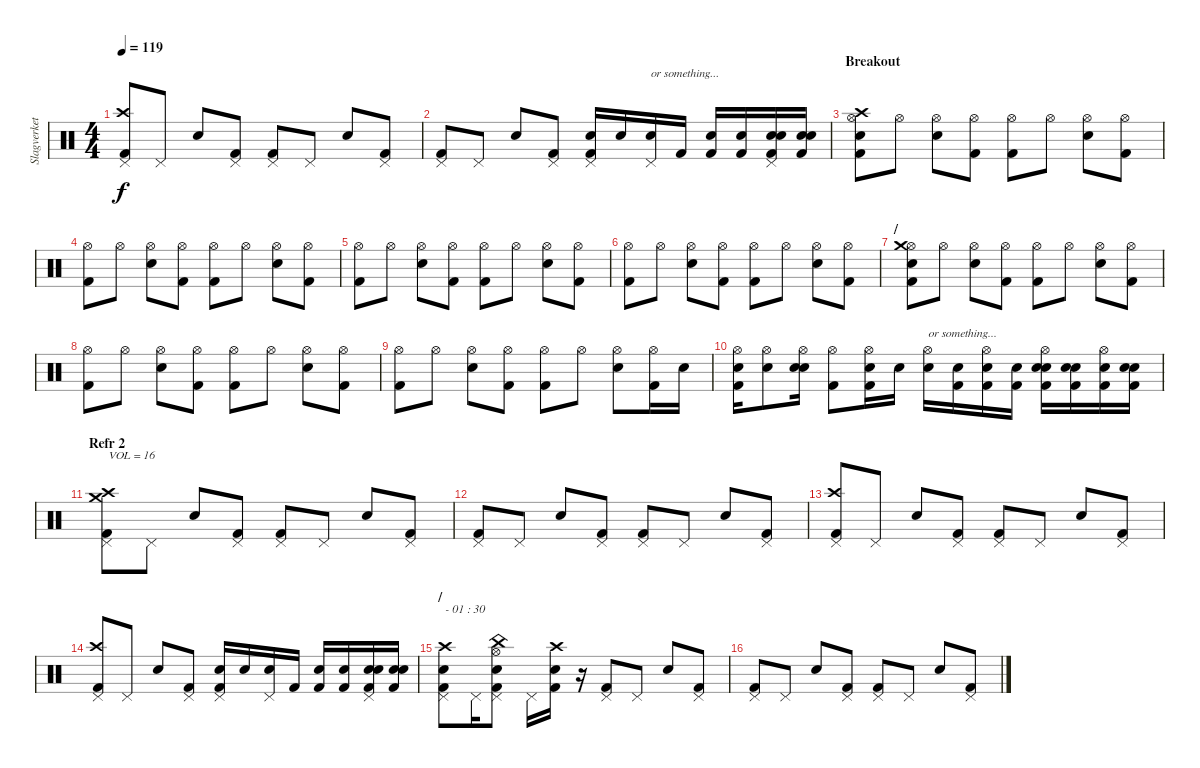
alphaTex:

\track ("Slagverket!" "Slagverket") {instrument percussion}
\staff {score}
\articulation defaults
\ts (4 4)
\tempo 119
\clef neutral
\ks c
("Pedal Hi-Hat (hit)" "Crash high (hit)" "Kick (hit) 2").8{dy f} "Pedal Hi-Hat (hit)".8 "Snare (hit) 2".8 ("Pedal Hi-Hat (hit)" "Kick (hit) 2").8 ("Pedal Hi-Hat (hit)" "Kick (hit) 2").8 "Pedal Hi-Hat (hit)".8 "Snare (hit) 2".8 ("Pedal Hi-Hat (hit)" "Kick (hit) 2").8 |
("Pedal Hi-Hat (hit)" "Kick (hit) 2").8 "Pedal Hi-Hat (hit)".8 "Snare (hit) 2".8 ("Pedal Hi-Hat (hit)" "Kick (hit) 2").8 ("Pedal Hi-Hat (hit)" "Electric Snare (hit)" "Kick (hit) 2").16 "Electric Snare (hit)".16 ("Pedal Hi-Hat (hit)" "Electric Snare (hit)").16{txt "or something..."} "Kick (hit) 2".16 ("Snare (hit) 2" "Kick (hit) 2").16 ("Electric Snare (hit)" "Kick (hit) 2").16 ("Pedal Hi-Hat (hit)" "Snare (hit) 2" "Electric Snare (hit)" "Kick (hit) 2").16 ("Electric Snare (hit)" "Electric Snare (hit)" "Kick (hit) 2").16 |
\section ("" "Breakout")
("Hi-Hat (open)" "Crash high (hit)" "Snare (hit) 2" "Kick (hit) 2").8 "Hi-Hat (open)".8 ("Hi-Hat (open)" "Electric Snare (hit)").8 ("Hi-Hat (open)" "Kick (hit) 2").8 ("Hi-Hat (open)" "Kick (hit) 2").8 "Hi-Hat (open)".8 ("Hi-Hat (open)" "Electric Snare (hit)").8 ("Hi-Hat (open)" "Kick (hit) 2").8 |
("Hi-Hat (open)" "Kick (hit) 2").8 "Hi-Hat (open)".8 ("Hi-Hat (open)" "Electric Snare (hit)").8 ("Hi-Hat (open)" "Kick (hit) 2").8 ("Hi-Hat (open)" "Kick (hit) 2").8 "Hi-Hat (open)".8 ("Hi-Hat (open)" "Electric Snare (hit)").8 ("Hi-Hat (open)" "Kick (hit) 2").8 |
("Hi-Hat (open)" "Kick (hit) 2").8 "Hi-Hat (open)".8 ("Hi-Hat (open)" "Electric Snare (hit)").8 ("Hi-Hat (open)" "Kick (hit) 2").8 ("Hi-Hat (open)" "Kick (hit) 2").8 "Hi-Hat (open)".8 ("Hi-Hat (open)" "Electric Snare (hit)").8 ("Hi-Hat (open)" "Kick (hit) 2").8 |
("Hi-Hat (open)" "Kick (hit) 2").8 "Hi-Hat (open)".8 ("Hi-Hat (open)" "Electric Snare (hit)").8 ("Hi-Hat (open)" "Kick (hit) 2").8 ("Hi-Hat (open)" "Kick (hit) 2").8 "Hi-Hat (open)".8 ("Hi-Hat (open)" "Electric Snare (hit)").8 ("Hi-Hat (open)" "Kick (hit) 2").8 |
\section ("" "/")
("Hi-Hat (open)" "Crash medium (hit)" "Snare (hit) 2" "Kick (hit) 2").8 "Hi-Hat (open)".8 ("Hi-Hat (open)" "Electric Snare (hit)").8 ("Hi-Hat (open)" "Kick (hit) 2").8 ("Hi-Hat (open)" "Kick (hit) 2").8 "Hi-Hat (open)".8 ("Hi-Hat (open)" "Electric Snare (hit)").8 ("Hi-Hat (open)" "Kick (hit) 2").8 |
("Hi-Hat (open)" "Kick (hit) 2").8 "Hi-Hat (open)".8 ("Hi-Hat (open)" "Electric Snare (hit)").8 ("Hi-Hat (open)" "Kick (hit) 2").8 ("Hi-Hat (open)" "Kick (hit) 2").8 "Hi-Hat (open)".8 ("Hi-Hat (open)" "Electric Snare (hit)").8 ("Hi-Hat (open)" "Kick (hit) 2").8 |
("Hi-Hat (open)" "Kick (hit) 2").8 "Hi-Hat (open)".8 ("Hi-Hat (open)" "Electric Snare (hit)").8 ("Hi-Hat (open)" "Kick (hit) 2").8 ("Hi-Hat (open)" "Kick (hit) 2").8 "Hi-Hat (open)".8 ("Hi-Hat (open)" "Electric Snare (hit)").8 ("Hi-Hat (open)" "Kick (hit) 2").16 "Electric Snare (hit)".16 |
("Hi-Hat (open)" "Electric Snare (hit)" "Kick (hit) 2").16 ("Hi-Hat (open)" "Electric Snare (hit)").8 ("Hi-Hat (open)" "Snare (hit) 2" "Electric Snare (hit)").16 ("Hi-Hat (open)" "Kick (hit) 2").8 ("Hi-Hat (open)" "Electric Snare (hit)" "Kick (hit) 2").16 "Electric Snare (hit)".16 ("Hi-Hat (open)" "Electric Snare (hit)").16{txt "or something..."} ("Electric Snare (hit)" "Kick (hit) 2").16 ("Hi-Hat (open)" "Snare (hit) 2" "Kick (hit) 2").16 ("Electric Snare (hit)" "Kick (hit) 2").16 ("Hi-Hat (open)" "Snare (hit) 2" "Electric Snare (hit)" "Kick (hit) 2").16 ("Electric Snare (hit)" "Electric Snare (hit)" "Kick (hit) 2").16 ("Hi-Hat (open)" "Snare (hit) 2" "Kick (hit) 2").16 ("Electric Snare (hit)" "Snare (hit) 2" "Kick (hit) 2").16 |
\section ("" "Refr 2")
("Pedal Hi-Hat (hit)" "Crash medium (hit)" "Crash high (hit)" "Kick (hit) 2").8{txt "VOL = 16" volume 16} "Pedal Hi-Hat (hit)".8 "Snare (hit) 2".8 ("Pedal Hi-Hat (hit)" "Kick (hit) 2").8 ("Pedal Hi-Hat (hit)" "Kick (hit) 2").8 "Pedal Hi-Hat (hit)".8 "Snare (hit) 2".8 ("Pedal Hi-Hat (hit)" "Kick (hit) 2").8 |
("Pedal Hi-Hat (hit)" "Kick (hit) 2").8 "Pedal Hi-Hat (hit)".8 "Snare (hit) 2".8 ("Pedal Hi-Hat (hit)" "Kick (hit) 2").8 ("Pedal Hi-Hat (hit)" "Kick (hit) 2").8 "Pedal Hi-Hat (hit)".8 "Snare (hit) 2".8 ("Pedal Hi-Hat (hit)" "Kick (hit) 2").8 |
("Pedal Hi-Hat (hit)" "Crash high (hit)" "Kick (hit) 2").8 "Pedal Hi-Hat (hit)".8 "Snare (hit) 2".8 ("Pedal Hi-Hat (hit)" "Kick (hit) 2").8 ("Pedal Hi-Hat (hit)" "Kick (hit) 2").8 "Pedal Hi-Hat (hit)".8 "Snare (hit) 2".8 ("Pedal Hi-Hat (hit)" "Kick (hit) 2").8 |
("Pedal Hi-Hat (hit)" "Crash high (hit)" "Kick (hit) 2").8 "Pedal Hi-Hat (hit)".8 "Snare (hit) 2".8 ("Pedal Hi-Hat (hit)" "Kick (hit) 2").8 ("Pedal Hi-Hat (hit)" "Electric Snare (hit)" "Kick (hit) 2").16 "Electric Snare (hit)".16 ("Pedal Hi-Hat (hit)" "Electric Snare (hit)").16 "Kick (hit) 2".16 ("Snare (hit) 2" "Kick (hit) 2").16 ("Electric Snare (hit)" "Kick (hit) 2").16 ("Pedal Hi-Hat (hit)" "Snare (hit) 2" "Electric Snare (hit)" "Kick (hit) 2").16 ("Electric Snare (hit)" "Electric Snare (hit)" "Kick (hit) 2").16 |
\section ("" "/")
("Pedal Hi-Hat (hit)" "Crash high (hit)" "Snare (hit) 2" "Kick (hit) 2").8{txt "- 01 : 30"} "Pedal Hi-Hat (hit)".16 ("Pedal Hi-Hat (hit)" "Hi-Hat (open)" "Snare (hit) 2" "China (hit)" "Kick (hit) 2").8 "Pedal Hi-Hat (hit)".16 ("Crash high (hit)" "Electric Snare (hit)" "Kick (hit) 2").16 r.16 ("Pedal Hi-Hat (hit)" "Kick (hit) 2").8 "Pedal Hi-Hat (hit)".8 "Snare (hit) 2".8 ("Pedal Hi-Hat (hit)" "Kick (hit) 2").8 |
("Pedal Hi-Hat (hit)" "Kick (hit) 2").8 "Pedal Hi-Hat (hit)".8 "Snare (hit) 2".8 ("Pedal Hi-Hat (hit)" "Kick (hit) 2").8 ("Pedal Hi-Hat (hit)" "Kick (hit) 2").8 "Pedal Hi-Hat (hit)".8 "Snare (hit) 2".8 ("Pedal Hi-Hat (hit)" "Kick (hit) 2").8
